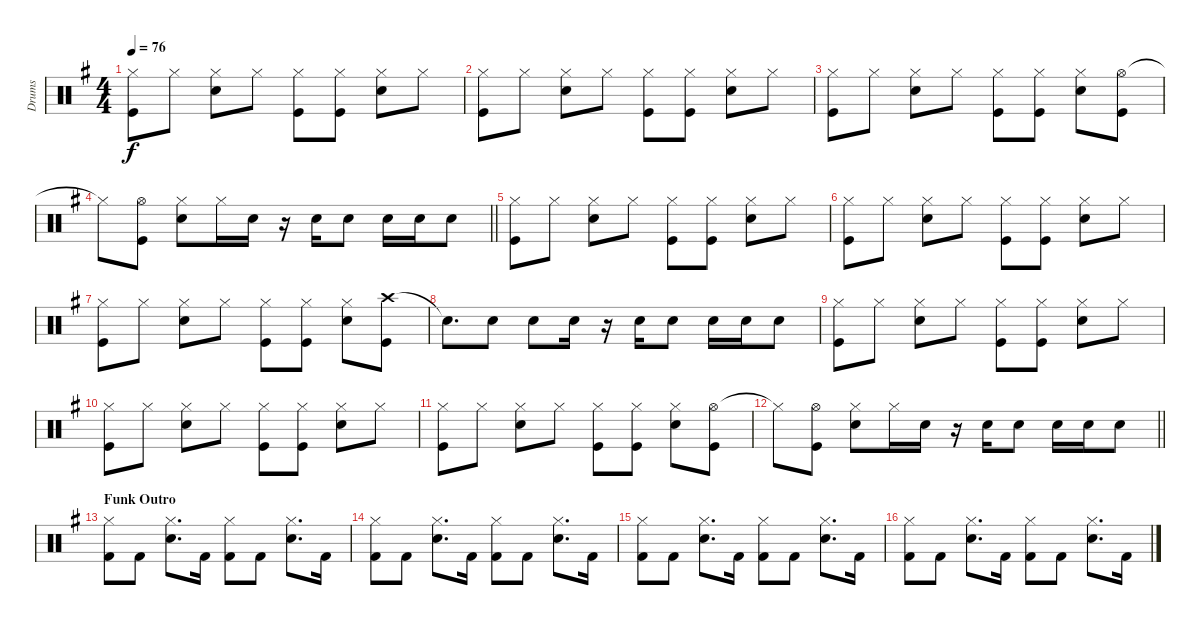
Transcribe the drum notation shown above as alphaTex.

\track ("Drums" "Drums") {instrument percussion}
\staff {score}
\articulation defaults
\ts (4 4)
\tempo 76
\clef neutral
\ks eminor
("Hi-Hat (closed)" "Kick (hit)").8{dy f} "Hi-Hat (closed)".8 ("Hi-Hat (closed)" "Snare (hit) 2").8 "Hi-Hat (closed)".8 ("Hi-Hat (closed)" "Kick (hit)").8 ("Hi-Hat (closed)" "Kick (hit)").8 ("Hi-Hat (closed)" "Snare (hit) 2").8 "Hi-Hat (closed)".8 |
("Hi-Hat (closed)" "Kick (hit)").8 "Hi-Hat (closed)".8 ("Hi-Hat (closed)" "Snare (hit) 2").8 "Hi-Hat (closed)".8 ("Hi-Hat (closed)" "Kick (hit)").8 ("Hi-Hat (closed)" "Kick (hit)").8 ("Hi-Hat (closed)" "Snare (hit) 2").8 "Hi-Hat (closed)".8 |
("Hi-Hat (closed)" "Kick (hit)").8 "Hi-Hat (closed)".8 ("Hi-Hat (closed)" "Snare (hit) 2").8 "Hi-Hat (closed)".8 ("Hi-Hat (closed)" "Kick (hit)").8 ("Hi-Hat (closed)" "Kick (hit)").8 ("Hi-Hat (closed)" "Snare (hit) 2").8 ("Hi-Hat (open)" "Kick (hit)").8 |
\barLineRight lightlight "Hi-Hat (closed)"{t}.8
("Hi-Hat (open)" "Kick (hit)").8 ("Hi-Hat (closed)" "Snare (hit) 2").8 "Hi-Hat (closed)".16 "Snare (hit) 2".16 r.16 "Snare (hit) 2".16 "Snare (hit) 2".8 "Snare (hit) 2".16 "Snare (hit) 2".16 "Snare (hit) 2".8 |
("Hi-Hat (closed)" "Kick (hit)").8 "Hi-Hat (closed)".8 ("Hi-Hat (closed)" "Snare (hit) 2").8 "Hi-Hat (closed)".8 ("Hi-Hat (closed)" "Kick (hit)").8 ("Hi-Hat (closed)" "Kick (hit)").8 ("Hi-Hat (closed)" "Snare (hit) 2").8 "Hi-Hat (closed)".8 |
("Hi-Hat (closed)" "Kick (hit)").8 "Hi-Hat (closed)".8 ("Hi-Hat (closed)" "Snare (hit) 2").8 "Hi-Hat (closed)".8 ("Hi-Hat (closed)" "Kick (hit)").8 ("Hi-Hat (closed)" "Kick (hit)").8 ("Hi-Hat (closed)" "Snare (hit) 2").8 "Hi-Hat (closed)".8 |
("Hi-Hat (closed)" "Kick (hit)").8 "Hi-Hat (closed)".8 ("Hi-Hat (closed)" "Snare (hit) 2").8 "Hi-Hat (closed)".8 ("Hi-Hat (closed)" "Kick (hit)").8 ("Hi-Hat (closed)" "Kick (hit)").8 ("Hi-Hat (closed)" "Snare (hit) 2").8 ("Crash high (hit)" "Kick (hit)").8 |
"Snare (hit)"{t}.8{d} "Snare (hit) 2".8 "Snare (hit) 2".8 "Snare (hit) 2".16 r.16 "Snare (hit) 2".16 "Snare (hit) 2".8 "Snare (hit) 2".16 "Snare (hit) 2".16 "Snare (hit) 2".8 |
("Hi-Hat (closed)" "Kick (hit)").8 "Hi-Hat (closed)".8 ("Hi-Hat (closed)" "Snare (hit) 2").8 "Hi-Hat (closed)".8 ("Hi-Hat (closed)" "Kick (hit)").8 ("Hi-Hat (closed)" "Kick (hit)").8 ("Hi-Hat (closed)" "Snare (hit) 2").8 "Hi-Hat (closed)".8 |
("Hi-Hat (closed)" "Kick (hit)").8 "Hi-Hat (closed)".8 ("Hi-Hat (closed)" "Snare (hit) 2").8 "Hi-Hat (closed)".8 ("Hi-Hat (closed)" "Kick (hit)").8 ("Hi-Hat (closed)" "Kick (hit)").8 ("Hi-Hat (closed)" "Snare (hit) 2").8 "Hi-Hat (closed)".8 |
("Hi-Hat (closed)" "Kick (hit)").8 "Hi-Hat (closed)".8 ("Hi-Hat (closed)" "Snare (hit) 2").8 "Hi-Hat (closed)".8 ("Hi-Hat (closed)" "Kick (hit)").8 ("Hi-Hat (closed)" "Kick (hit)").8 ("Hi-Hat (closed)" "Snare (hit) 2").8 ("Hi-Hat (open)" "Kick (hit)").8 |
\barLineRight lightlight "Hi-Hat (closed)"{t}.8
("Hi-Hat (open)" "Kick (hit)").8 ("Hi-Hat (closed)" "Snare (hit) 2").8 "Hi-Hat (closed)".16 "Snare (hit) 2".16 r.16 "Snare (hit) 2".16 "Snare (hit) 2".8 "Snare (hit) 2".16 "Snare (hit) 2".16 "Snare (hit) 2".8 |
\section ("" "Funk Outro")
("Hi-Hat (closed)" "Kick (hit) 2").8 "Kick (hit) 2".8 ("Hi-Hat (closed)" "Snare (hit) 2").8{d} "Kick (hit) 2".16 ("Hi-Hat (closed)" "Kick (hit) 2").8 "Kick (hit) 2".8 ("Hi-Hat (closed)" "Snare (hit) 2").8{d} "Kick (hit) 2".16 |
("Hi-Hat (closed)" "Kick (hit) 2").8 "Kick (hit) 2".8 ("Hi-Hat (closed)" "Snare (hit) 2").8{d} "Kick (hit) 2".16 ("Hi-Hat (closed)" "Kick (hit) 2").8 "Kick (hit) 2".8 ("Hi-Hat (closed)" "Snare (hit) 2").8{d} "Kick (hit) 2".16 |
("Hi-Hat (closed)" "Kick (hit) 2").8 "Kick (hit) 2".8 ("Hi-Hat (closed)" "Snare (hit) 2").8{d} "Kick (hit) 2".16 ("Hi-Hat (closed)" "Kick (hit) 2").8 "Kick (hit) 2".8 ("Hi-Hat (closed)" "Snare (hit) 2").8{d} "Kick (hit) 2".16 |
("Hi-Hat (closed)" "Kick (hit) 2").8 "Kick (hit) 2".8 ("Hi-Hat (closed)" "Snare (hit) 2").8{d} "Kick (hit) 2".16 ("Hi-Hat (closed)" "Kick (hit) 2").8 "Kick (hit) 2".8 ("Hi-Hat (closed)" "Snare (hit) 2").8{d} "Kick (hit) 2".16
